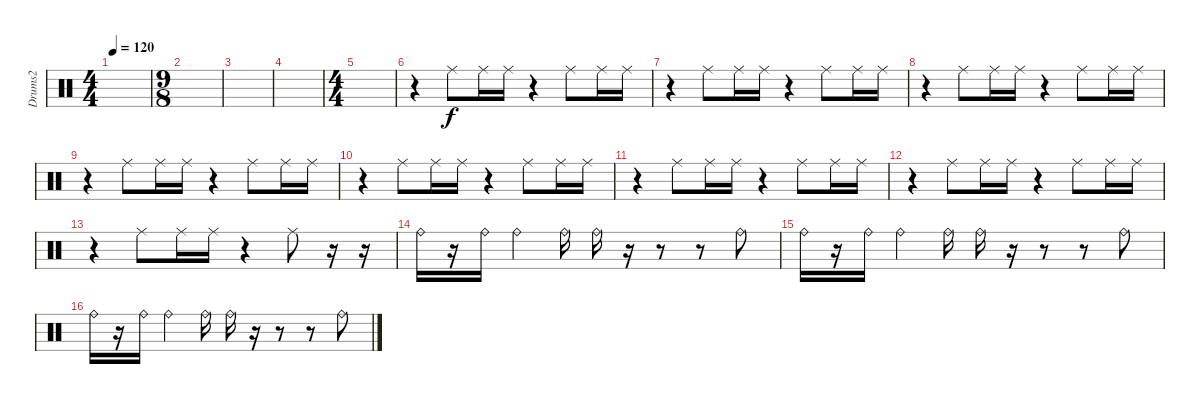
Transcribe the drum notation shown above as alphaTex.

\track ("Drums2" "Drums2") {instrument percussion}
\staff {score}
\articulation defaults
\ts (4 4)
\tempo 120
\clef neutral
\ks c
|
\ts (9 8)
|
|
|
\ts (4 4)
|
r.4 "Ride (middle)".8 "Ride (middle)".16 "Ride (middle)".16 r.4 "Ride (middle)".8 "Ride (middle)".16 "Ride (middle)".16 |
r.4 "Ride (middle)".8 "Ride (middle)".16 "Ride (middle)".16 r.4 "Ride (middle)".8 "Ride (middle)".16 "Ride (middle)".16 |
r.4 "Ride (middle)".8 "Ride (middle)".16 "Ride (middle)".16 r.4 "Ride (middle)".8 "Ride (middle)".16 "Ride (middle)".16 |
r.4 "Ride (middle)".8 "Ride (middle)".16 "Ride (middle)".16 r.4 "Ride (middle)".8 "Ride (middle)".16 "Ride (middle)".16 |
r.4 "Ride (middle)".8 "Ride (middle)".16 "Ride (middle)".16 r.4 "Ride (middle)".8 "Ride (middle)".16 "Ride (middle)".16 |
r.4 "Ride (middle)".8 "Ride (middle)".16 "Ride (middle)".16 r.4 "Ride (middle)".8 "Ride (middle)".16 "Ride (middle)".16 |
r.4 "Ride (middle)".8 "Ride (middle)".16 "Ride (middle)".16 r.4 "Ride (middle)".8 "Ride (middle)".16 "Ride (middle)".16 |
r.4 "Ride (middle)".8 "Ride (middle)".16 "Ride (middle)".16 r.4 "Ride (middle)".8 r.16 r.16 |
"Ride (bell)".16 r.16 "Ride (bell)".16 "Ride (bell)".4 "Ride (bell)".16 "Ride (bell)".16 r.16 r.8 r.8 "Ride (bell)".8 |
"Ride (bell)".16 r.16 "Ride (bell)".16 "Ride (bell)".4 "Ride (bell)".16 "Ride (bell)".16 r.16 r.8 r.8 "Ride (bell)".8 |
"Ride (bell)".16 r.16 "Ride (bell)".16 "Ride (bell)".4 "Ride (bell)".16 "Ride (bell)".16 r.16 r.8 r.8 "Ride (bell)".8
